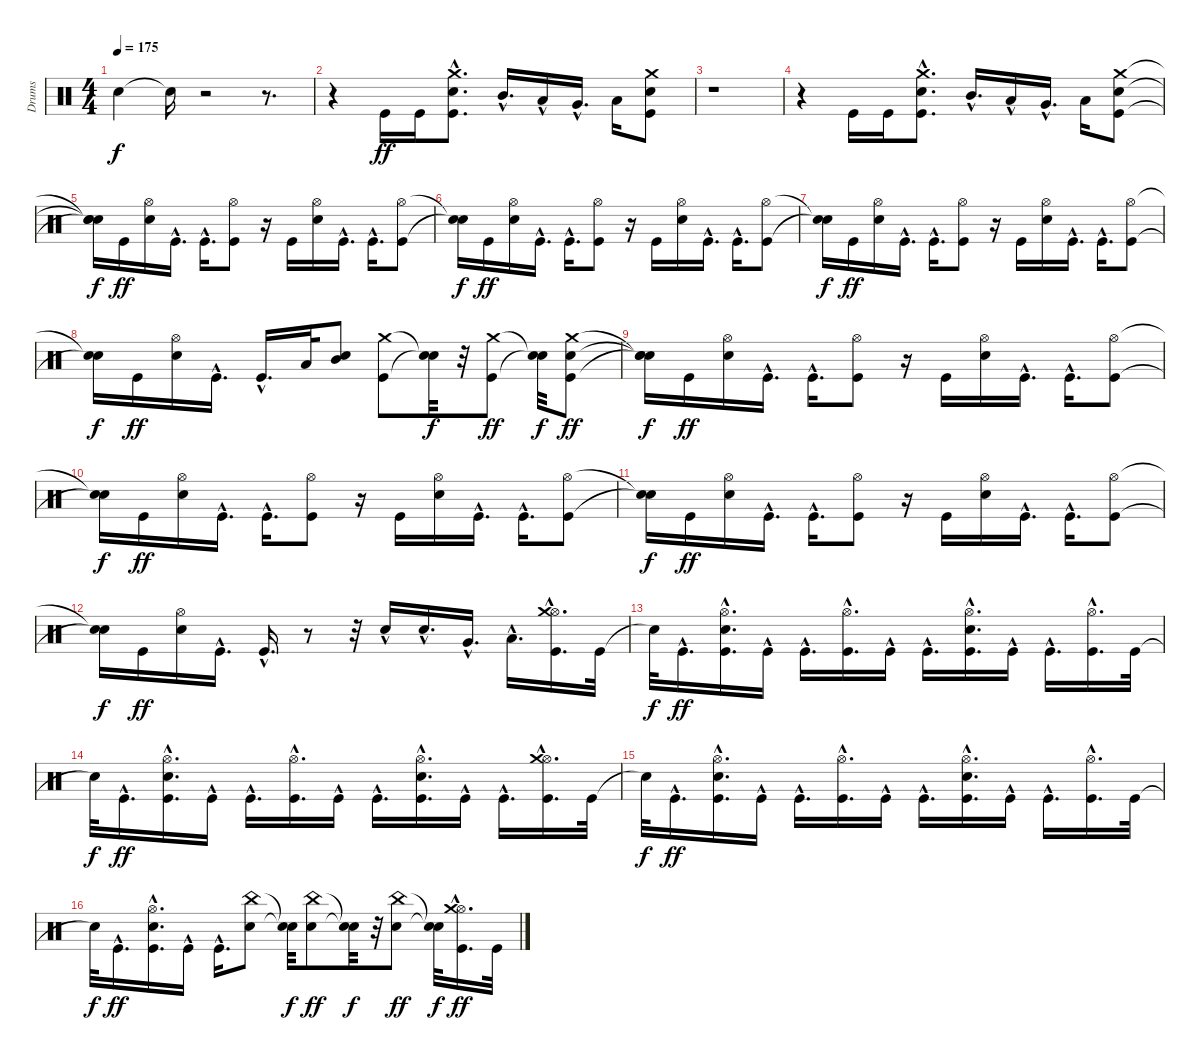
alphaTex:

\track ("Drums" "Drums") {instrument percussion}
\staff {score}
\articulation defaults
\ts (4 4)
\tempo 175
\clef neutral
\ks c "Snare (hit)"{t}.4{dy f} "Snare (hit)"{t}.16
r.2 r.8{d} |
r.4 "Kick (hit)".16{dy ff} "Kick (hit)".16 ("Kick (hit)"{hac} "Electric Snare (hit)"{hac} "Crash medium (hit)"{hac}).8{d} "Mid Tom (hit)"{hac}.16{d} "Low Tom (hit)"{hac}.16 "Very Low Tom (hit)"{hac}.16{d} "Low Floor Tom (hit)".16 ("Kick (hit)" "Electric Snare (hit)" "Crash medium (hit)").8 |
r.1 |
r.4 "Kick (hit)".16 "Kick (hit)".16 ("Kick (hit)"{hac} "Electric Snare (hit)"{hac} "Crash medium (hit)"{hac}).8{d} "Mid Tom (hit)"{hac}.16{d} "Low Tom (hit)"{hac}.16 "Very Low Tom (hit)"{hac}.16{d} "Low Floor Tom (hit)".16 ("Kick (hit)" "Electric Snare (hit)" "Crash medium (hit)").8 |
("Snare (hit)"{t} "Snare (hit)"{t} "Snare (hit)"{t}).16{dy f} "Kick (hit)".16{dy ff} ("Electric Snare (hit)" "Hi-Hat (open)").16 "Kick (hit)"{hac}.16{d} "Kick (hit)"{hac}.16{d} ("Kick (hit)" "Hi-Hat (open)").8 r.16 "Kick (hit)".16 ("Electric Snare (hit)" "Hi-Hat (open)").16 "Kick (hit)"{hac}.16{d} "Kick (hit)"{hac}.16{d} ("Kick (hit)" "Hi-Hat (open)").8 |
("Snare (hit)"{t} "Snare (hit)"{t}).16{dy f} "Kick (hit)".16{dy ff} ("Electric Snare (hit)" "Hi-Hat (open)").16 "Kick (hit)"{hac}.16{d} "Kick (hit)"{hac}.16{d} ("Kick (hit)" "Hi-Hat (open)").8 r.16 "Kick (hit)".16 ("Electric Snare (hit)" "Hi-Hat (open)").16 "Kick (hit)"{hac}.16{d} "Kick (hit)"{hac}.16{d} ("Kick (hit)" "Hi-Hat (open)").8 |
("Snare (hit)"{t} "Snare (hit)"{t}).16{dy f} "Kick (hit)".16{dy ff} ("Electric Snare (hit)" "Hi-Hat (open)").16 "Kick (hit)"{hac}.16{d} "Kick (hit)"{hac}.16{d} ("Kick (hit)" "Hi-Hat (open)").8 r.16 "Kick (hit)".16 ("Electric Snare (hit)" "Hi-Hat (open)").16 "Kick (hit)"{hac}.16{d} "Kick (hit)"{hac}.16{d} ("Kick (hit)" "Hi-Hat (open)").8 |
("Snare (hit)"{t} "Snare (hit)"{t}).16{dy f} "Kick (hit)".16{dy ff} ("Electric Snare (hit)" "Hi-Hat (open)").16 "Kick (hit)"{hac}.16{d} "Kick (hit)"{hac}.16{d} "Low Floor Tom (hit)".32 ("Electric Snare (hit)" "Mid Tom (hit)").8 ("Kick (hit)" "Crash medium (hit)").8 ("Snare (hit)"{t} "Snare (hit)"{t}).32{dy f} r.32 ("Kick (hit)" "Crash medium (hit)").8{dy ff} ("Snare (hit)"{t} "Snare (hit)"{t}).32{dy f} ("Kick (hit)" "Electric Snare (hit)" "Crash medium (hit)").8{dy ff} |
("Snare (hit)"{t} "Snare (hit)"{t} "Snare (hit)"{t}).16{dy f} "Kick (hit)".16{dy ff} ("Electric Snare (hit)" "Hi-Hat (open)").16 "Kick (hit)"{hac}.16{d} "Kick (hit)"{hac}.16{d} ("Kick (hit)" "Hi-Hat (open)").8 r.16 "Kick (hit)".16 ("Electric Snare (hit)" "Hi-Hat (open)").16 "Kick (hit)"{hac}.16{d} "Kick (hit)"{hac}.16{d} ("Kick (hit)" "Hi-Hat (open)").8 |
("Snare (hit)"{t} "Snare (hit)"{t}).16{dy f} "Kick (hit)".16{dy ff} ("Electric Snare (hit)" "Hi-Hat (open)").16 "Kick (hit)"{hac}.16{d} "Kick (hit)"{hac}.16{d} ("Kick (hit)" "Hi-Hat (open)").8 r.16 "Kick (hit)".16 ("Electric Snare (hit)" "Hi-Hat (open)").16 "Kick (hit)"{hac}.16{d} "Kick (hit)"{hac}.16{d} ("Kick (hit)" "Hi-Hat (open)").8 |
("Snare (hit)"{t} "Snare (hit)"{t}).16{dy f} "Kick (hit)".16{dy ff} ("Electric Snare (hit)" "Hi-Hat (open)").16 "Kick (hit)"{hac}.16{d} "Kick (hit)"{hac}.16{d} ("Kick (hit)" "Hi-Hat (open)").8 r.16 "Kick (hit)".16 ("Electric Snare (hit)" "Hi-Hat (open)").16 "Kick (hit)"{hac}.16{d} "Kick (hit)"{hac}.16{d} ("Kick (hit)" "Hi-Hat (open)").8 |
("Snare (hit)"{t} "Snare (hit)"{t}).16{dy f} "Kick (hit)".16{dy ff} ("Electric Snare (hit)" "Hi-Hat (open)").16 "Kick (hit)"{hac}.16{d} "Kick (hit)"{hac}.16{d} r.8 r.32 "Electric Snare (hit)"{hac}.16 "Electric Snare (hit)"{hac}.16{d} "Very Low Tom (hit)"{hac}.16{d} "Low Floor Tom (hit)"{hac}.16{d} ("Kick (hit)"{hac} "Hi-Hat (open)"{hac} "Crash medium (hit)"{hac}).16{d} "Kick (hit)".32 |
"Snare (hit)"{t}.32{dy f} "Kick (hit)"{hac}.16{d dy ff} ("Kick (hit)"{hac} "Electric Snare (hit)"{hac} "Hi-Hat (open)"{hac}).16{d} "Kick (hit)"{hac}.16 "Kick (hit)"{hac}.16{d} ("Kick (hit)"{hac} "Hi-Hat (open)"{hac}).16{d} "Kick (hit)"{hac}.16 "Kick (hit)"{hac}.16{d} ("Kick (hit)"{hac} "Electric Snare (hit)"{hac} "Hi-Hat (open)"{hac}).16{d} "Kick (hit)"{hac}.16 "Kick (hit)"{hac}.16{d} ("Kick (hit)"{hac} "Hi-Hat (open)"{hac}).16{d} "Kick (hit)".32 |
"Snare (hit)"{t}.32{dy f} "Kick (hit)"{hac}.16{d dy ff} ("Kick (hit)"{hac} "Electric Snare (hit)"{hac} "Hi-Hat (open)"{hac}).16{d} "Kick (hit)"{hac}.16 "Kick (hit)"{hac}.16{d} ("Kick (hit)"{hac} "Hi-Hat (open)"{hac}).16{d} "Kick (hit)"{hac}.16 "Kick (hit)"{hac}.16{d} ("Kick (hit)"{hac} "Electric Snare (hit)"{hac} "Hi-Hat (open)"{hac}).16{d} "Kick (hit)"{hac}.16 "Kick (hit)"{hac}.16{d} ("Kick (hit)"{hac} "Hi-Hat (open)"{hac} "Crash medium (hit)"{hac}).16{d} "Kick (hit)".32 |
"Snare (hit)"{t}.32{dy f} "Kick (hit)"{hac}.16{d dy ff} ("Kick (hit)"{hac} "Electric Snare (hit)"{hac} "Hi-Hat (open)"{hac}).16{d} "Kick (hit)"{hac}.16 "Kick (hit)"{hac}.16{d} ("Kick (hit)"{hac} "Hi-Hat (open)"{hac}).16{d} "Kick (hit)"{hac}.16 "Kick (hit)"{hac}.16{d} ("Kick (hit)"{hac} "Electric Snare (hit)"{hac} "Hi-Hat (open)"{hac}).16{d} "Kick (hit)"{hac}.16 "Kick (hit)"{hac}.16{d} ("Kick (hit)"{hac} "Hi-Hat (open)"{hac}).16{d} "Kick (hit)".32 |
"Snare (hit)"{t}.32{dy f} "Kick (hit)"{hac}.16{d dy ff} ("Kick (hit)"{hac} "Electric Snare (hit)"{hac} "Hi-Hat (open)"{hac}).16{d} "Kick (hit)"{hac}.16 "Kick (hit)"{hac}.16{d} ("Electric Snare (hit)" "China (hit)").8 ("Snare (hit)"{t} "Snare (hit)"{t}).32{dy f} ("Electric Snare (hit)" "China (hit)").8{dy ff} ("Snare (hit)"{t} "Snare (hit)"{t}).32{dy f} r.32 ("Electric Snare (hit)" "China (hit)").8{dy ff} ("Snare (hit)"{t} "Snare (hit)"{t}).32{dy f} ("Kick (hit)"{hac} "Hi-Hat (open)"{hac} "Crash medium (hit)"{hac}).16{d dy ff} "Kick (hit)".32
